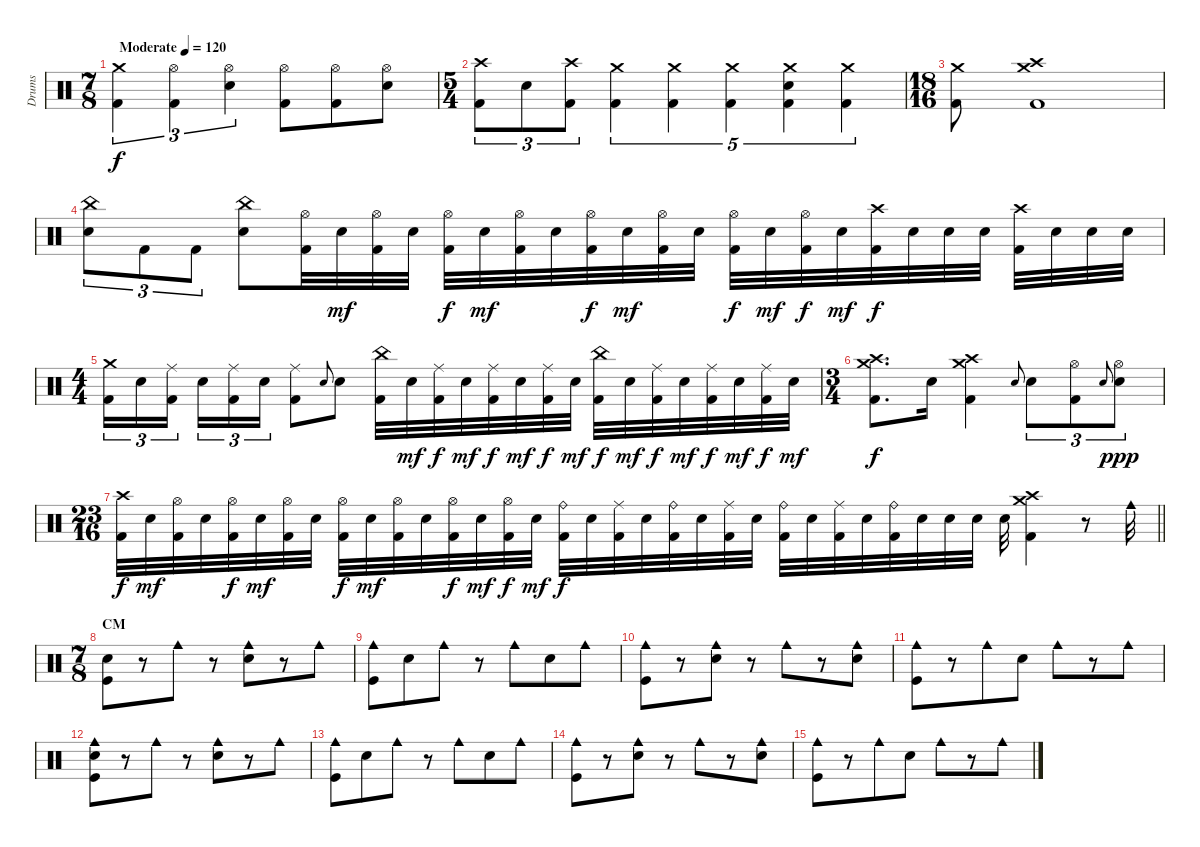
\track ("Drums" "Drums") {instrument percussion}
\staff {score}
\articulation defaults
\ts (7 8)
\tempo (120 "Moderate")
\clef neutral
\ks c
("Crash medium (hit)" "Kick (hit) 2").4{tu (3 2) dy f} ("Hi-Hat (open)" "Kick (hit) 2").4{tu (3 2)} ("Hi-Hat (open)" "Electric Snare (hit)").4{tu (3 2)} ("Hi-Hat (open)" "Kick (hit) 2").8 ("Hi-Hat (open)" "Kick (hit) 2").8 ("Hi-Hat (open)" "Electric Snare (hit)").8 |
\ts (5 4)
("Crash high (hit)" "Kick (hit) 2").8{tu (3 2)} "Electric Snare (hit)".8{tu (3 2)} ("Crash high (hit)" "Kick (hit) 2").8{tu (3 2)} ("Crash medium (hit)" "Kick (hit) 2").4{tu (5 4)} ("Crash medium (hit)" "Kick (hit) 2").4{tu (5 4)} ("Crash medium (hit)" "Kick (hit) 2").4{tu (5 4)} ("Crash medium (hit)" "Electric Snare (hit)" "Kick (hit) 2").4{tu (5 4)} ("Crash medium (hit)" "Kick (hit) 2").4{tu (5 4)} |
\ts (18 16)
("Crash medium (hit)" "Kick (hit) 2").8 ("Crash medium (hit)" "Crash high (hit)" "Kick (hit) 2").1 |
("China (hit)" "Electric Snare (hit)").8{tu (3 2)} "Kick (hit) 2".8{tu (3 2)} "Kick (hit) 2".8{tu (3 2)} ("China (hit)" "Electric Snare (hit)").8 ("Hi-Hat (open)" "Kick (hit) 2").32 "Electric Snare (hit)".32{dy mf} ("Hi-Hat (open)" "Kick (hit) 2").32 "Electric Snare (hit)".32 ("Hi-Hat (open)" "Kick (hit) 2").32{dy f} "Electric Snare (hit)".32{dy mf} ("Hi-Hat (open)" "Kick (hit) 2").32 "Electric Snare (hit)".32 ("Hi-Hat (open)" "Kick (hit) 2").32{dy f} "Electric Snare (hit)".32{dy mf} ("Hi-Hat (open)" "Kick (hit) 2").32 "Electric Snare (hit)".32 ("Hi-Hat (open)" "Kick (hit) 2").32{dy f} "Electric Snare (hit)".32{dy mf} ("Hi-Hat (open)" "Kick (hit) 2").32{dy f} "Electric Snare (hit)".32{dy mf} ("Crash high (hit)" "Kick (hit) 2").32{dy f} "Electric Snare (hit)".32 "Electric Snare (hit)".32 "Electric Snare (hit)".32 ("Crash high (hit)" "Kick (hit) 2").32 "Electric Snare (hit)".32 "Electric Snare (hit)".32 "Electric Snare (hit)".32 |
\ts (4 4)
("Crash medium (hit)" "Kick (hit) 2").16{tu (3 2)} "Electric Snare (hit)".16{tu (3 2)} ("Ride (middle)" "Kick (hit) 2").16{tu (3 2) beam splitsecondary} "Electric Snare (hit)".16{tu (3 2)} ("Ride (middle)" "Kick (hit) 2").16{tu (3 2)} "Electric Snare (hit)".16{tu (3 2)} ("Ride (middle)" "Kick (hit) 2").8 "Electric Snare (hit)".8{gr onbeat} "Electric Snare (hit)".8 ("China (hit)" "Kick (hit) 2").32 "Electric Snare (hit)".32{dy mf} ("Ride (middle)" "Kick (hit) 2").32{dy f} "Electric Snare (hit)".32{dy mf} ("Ride (middle)" "Kick (hit) 2").32{dy f} "Electric Snare (hit)".32{dy mf} ("Ride (middle)" "Kick (hit) 2").32{dy f} "Electric Snare (hit)".32{dy mf} ("China (hit)" "Kick (hit) 2").32{dy f} "Electric Snare (hit)".32{dy mf} ("Ride (middle)" "Kick (hit) 2").32{dy f} "Electric Snare (hit)".32{dy mf} ("Ride (middle)" "Kick (hit) 2").32{dy f} "Electric Snare (hit)".32{dy mf} ("Ride (middle)" "Kick (hit) 2").32{dy f} "Electric Snare (hit)".32{dy mf} |
\ts (3 4)
("Crash medium (hit)" "Crash high (hit)" "Kick (hit) 2").8{d dy f} "Electric Snare (hit)".16 ("Crash medium (hit)" "Crash high (hit)" "Kick (hit) 2").4 "Electric Snare (hit)".8{gr onbeat} "Electric Snare (hit)".8{tu (3 2)} ("Hi-Hat (open)" "Kick (hit) 2").8{tu (3 2)} "Electric Snare (hit)".8{gr onbeat} ("Hi-Hat (open)" "Electric Snare (hit)").8{tu (3 2) dy ppp} |
\ts (23 16)
\barLineRight lightlight
("Crash high (hit)" "Kick (hit) 2").32{dy f} "Electric Snare (hit)".32{dy mf} ("Hi-Hat (open)" "Kick (hit) 2").32 "Electric Snare (hit)".32 ("Hi-Hat (open)" "Kick (hit) 2").32{dy f} "Electric Snare (hit)".32{dy mf} ("Hi-Hat (open)" "Kick (hit) 2").32 "Electric Snare (hit)".32 ("Hi-Hat (open)" "Kick (hit) 2").32{dy f} "Electric Snare (hit)".32{dy mf} ("Hi-Hat (open)" "Kick (hit) 2").32 "Electric Snare (hit)".32 ("Hi-Hat (open)" "Kick (hit) 2").32{dy f} "Electric Snare (hit)".32{dy mf} ("Hi-Hat (open)" "Kick (hit) 2").32{dy f} "Electric Snare (hit)".32{dy mf} ("Ride (bell)" "Kick (hit) 2").32{dy f} "Electric Snare (hit)".32 ("Ride (middle)" "Kick (hit) 2").32 "Electric Snare (hit)".32 ("Ride (bell)" "Kick (hit) 2").32 "Electric Snare (hit)".32 ("Ride (middle)" "Kick (hit) 2").32 "Electric Snare (hit)".32 ("Ride (bell)" "Kick (hit) 2").32 "Electric Snare (hit)".32 ("Ride (middle)" "Kick (hit) 2").32 "Electric Snare (hit)".32 ("Ride (bell)" "Kick (hit) 2").32 "Electric Snare (hit)".32 "Electric Snare (hit)".32 "Electric Snare (hit)".32 "Electric Snare (hit)".32 ("Crash medium (hit)" "Crash high (hit)" "Kick (hit) 2").4 r.8 "Cowbell medium (hit)".32 |
\ts (7 8)
\section ("" "CM")
("Hand Clap (hit)" "Kick (hit)").8 r.8 "Cowbell medium (hit)".8 r.8 ("Cowbell medium (hit)" "Hand Clap (hit)").8 r.8 "Cowbell medium (hit)".8 |
("Cowbell medium (hit)" "Kick (hit)").8 "Hand Clap (hit)".8 "Cowbell medium (hit)".8 r.8 "Cowbell medium (hit)".8 "Hand Clap (hit)".8 "Cowbell medium (hit)".8 |
("Cowbell medium (hit)" "Kick (hit)").8 r.8 ("Cowbell medium (hit)" "Hand Clap (hit)").8 r.8 "Cowbell medium (hit)".8 r.8 ("Cowbell medium (hit)" "Hand Clap (hit)").8 |
("Cowbell medium (hit)" "Kick (hit)").8 r.8 "Cowbell medium (hit)".8 "Hand Clap (hit)".8 "Cowbell medium (hit)".8 r.8 "Cowbell medium (hit)".8 |
("Cowbell medium (hit)" "Hand Clap (hit)" "Kick (hit)").8 r.8 "Cowbell medium (hit)".8 r.8 ("Cowbell medium (hit)" "Hand Clap (hit)").8 r.8 "Cowbell medium (hit)".8 |
("Cowbell medium (hit)" "Kick (hit)").8 "Hand Clap (hit)".8 "Cowbell medium (hit)".8 r.8 "Cowbell medium (hit)".8 "Hand Clap (hit)".8 "Cowbell medium (hit)".8 |
("Cowbell medium (hit)" "Kick (hit)").8 r.8 ("Cowbell medium (hit)" "Hand Clap (hit)").8 r.8 "Cowbell medium (hit)".8 r.8 ("Cowbell medium (hit)" "Hand Clap (hit)").8 |
("Cowbell medium (hit)" "Kick (hit)").8 r.8 "Cowbell medium (hit)".8 "Hand Clap (hit)".8 "Cowbell medium (hit)".8 r.8 "Cowbell medium (hit)".8
